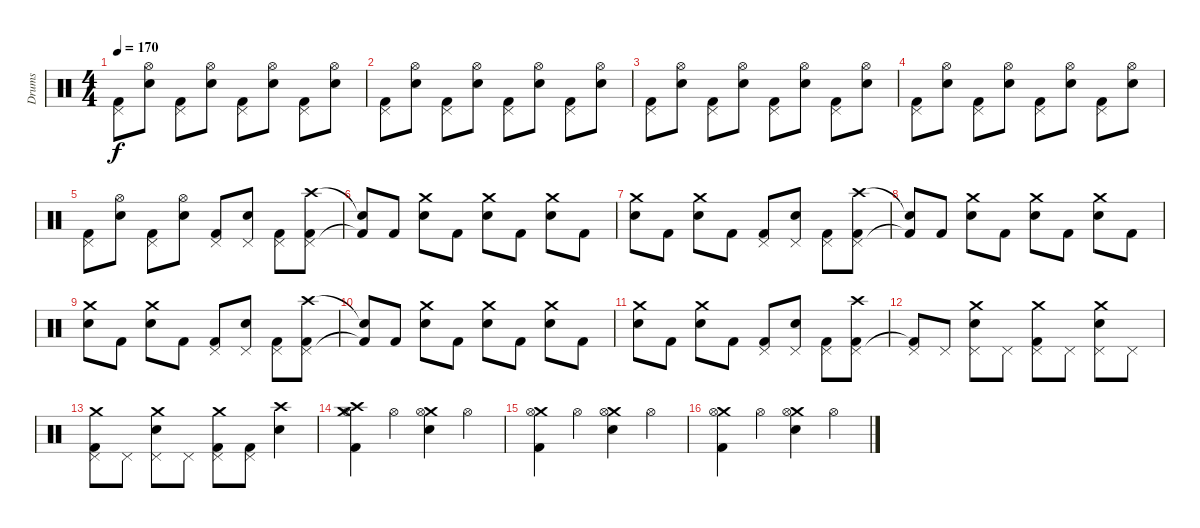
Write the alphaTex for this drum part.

\track ("Drums" "Drums") {instrument percussion}
\staff {score}
\articulation defaults
\ts (4 4)
\tempo 170
\clef neutral
\ks c
("Pedal Hi-Hat (hit)" "Kick (hit) 2").8{dy f} ("Hi-Hat (open)" "Electric Snare (hit)").8 ("Pedal Hi-Hat (hit)" "Kick (hit) 2").8 ("Hi-Hat (open)" "Electric Snare (hit)").8 ("Pedal Hi-Hat (hit)" "Kick (hit) 2").8 ("Hi-Hat (open)" "Electric Snare (hit)").8 ("Pedal Hi-Hat (hit)" "Kick (hit) 2").8 ("Hi-Hat (open)" "Electric Snare (hit)").8 |
("Pedal Hi-Hat (hit)" "Kick (hit) 2").8 ("Hi-Hat (open)" "Electric Snare (hit)").8 ("Pedal Hi-Hat (hit)" "Kick (hit) 2").8 ("Hi-Hat (open)" "Electric Snare (hit)").8 ("Pedal Hi-Hat (hit)" "Kick (hit) 2").8 ("Hi-Hat (open)" "Electric Snare (hit)").8 ("Pedal Hi-Hat (hit)" "Kick (hit) 2").8 ("Hi-Hat (open)" "Electric Snare (hit)").8 |
("Pedal Hi-Hat (hit)" "Kick (hit) 2").8 ("Hi-Hat (open)" "Electric Snare (hit)").8 ("Pedal Hi-Hat (hit)" "Kick (hit) 2").8 ("Hi-Hat (open)" "Electric Snare (hit)").8 ("Pedal Hi-Hat (hit)" "Kick (hit) 2").8 ("Hi-Hat (open)" "Electric Snare (hit)").8 ("Pedal Hi-Hat (hit)" "Kick (hit) 2").8 ("Hi-Hat (open)" "Electric Snare (hit)").8 |
("Pedal Hi-Hat (hit)" "Kick (hit) 2").8 ("Hi-Hat (open)" "Electric Snare (hit)").8 ("Pedal Hi-Hat (hit)" "Kick (hit) 2").8 ("Hi-Hat (open)" "Electric Snare (hit)").8 ("Pedal Hi-Hat (hit)" "Kick (hit) 2").8 ("Hi-Hat (open)" "Electric Snare (hit)").8 ("Pedal Hi-Hat (hit)" "Kick (hit) 2").8 ("Hi-Hat (open)" "Electric Snare (hit)").8 |
("Pedal Hi-Hat (hit)" "Kick (hit) 2").8 ("Hi-Hat (open)" "Electric Snare (hit)").8 ("Pedal Hi-Hat (hit)" "Kick (hit) 2").8 ("Hi-Hat (open)" "Electric Snare (hit)").8 ("Pedal Hi-Hat (hit)" "Kick (hit) 2").8 ("Pedal Hi-Hat (hit)" "Electric Snare (hit)").8 ("Pedal Hi-Hat (hit)" "Kick (hit) 2").8 ("Crash high (hit)" "Pedal Hi-Hat (hit)" "Kick (hit) 2").8 |
("Snare (hit)"{t} "Kick (hit) 2"{t}).8 "Kick (hit) 2".8 ("Crash medium (hit)" "Snare (hit) 2").8 "Kick (hit) 2".8 ("Crash medium (hit)" "Snare (hit) 2").8 "Kick (hit) 2".8 ("Crash medium (hit)" "Snare (hit) 2").8 "Kick (hit) 2".8 |
("Crash medium (hit)" "Snare (hit) 2").8 "Kick (hit) 2".8 ("Crash medium (hit)" "Snare (hit) 2").8 "Kick (hit) 2".8 ("Pedal Hi-Hat (hit)" "Kick (hit) 2").8 ("Pedal Hi-Hat (hit)" "Electric Snare (hit)").8 ("Pedal Hi-Hat (hit)" "Kick (hit) 2").8 ("Crash high (hit)" "Pedal Hi-Hat (hit)" "Kick (hit) 2").8 |
("Snare (hit)"{t} "Kick (hit) 2"{t}).8 "Kick (hit) 2".8 ("Crash medium (hit)" "Snare (hit) 2").8 "Kick (hit) 2".8 ("Crash medium (hit)" "Snare (hit) 2").8 "Kick (hit) 2".8 ("Crash medium (hit)" "Snare (hit) 2").8 "Kick (hit) 2".8 |
("Crash medium (hit)" "Snare (hit) 2").8 "Kick (hit) 2".8 ("Crash medium (hit)" "Snare (hit) 2").8 "Kick (hit) 2".8 ("Pedal Hi-Hat (hit)" "Kick (hit) 2").8 ("Pedal Hi-Hat (hit)" "Electric Snare (hit)").8 ("Pedal Hi-Hat (hit)" "Kick (hit) 2").8 ("Crash high (hit)" "Pedal Hi-Hat (hit)" "Kick (hit) 2").8 |
("Snare (hit)"{t} "Kick (hit) 2"{t}).8 "Kick (hit) 2".8 ("Crash medium (hit)" "Snare (hit) 2").8 "Kick (hit) 2".8 ("Crash medium (hit)" "Snare (hit) 2").8 "Kick (hit) 2".8 ("Crash medium (hit)" "Snare (hit) 2").8 "Kick (hit) 2".8 |
("Crash medium (hit)" "Snare (hit) 2").8 "Kick (hit) 2".8 ("Crash medium (hit)" "Snare (hit) 2").8 "Kick (hit) 2".8 ("Pedal Hi-Hat (hit)" "Kick (hit) 2").8 ("Pedal Hi-Hat (hit)" "Electric Snare (hit)").8 ("Pedal Hi-Hat (hit)" "Kick (hit) 2").8 ("Crash high (hit)" "Pedal Hi-Hat (hit)" "Kick (hit) 2").8 |
("Pedal Hi-Hat (hit)" "Kick (hit) 2"{t}).8 "Pedal Hi-Hat (hit)".8 ("Crash medium (hit)" "Pedal Hi-Hat (hit)" "Snare (hit) 2").8 "Pedal Hi-Hat (hit)".8 ("Crash medium (hit)" "Pedal Hi-Hat (hit)" "Kick (hit) 2").8 "Pedal Hi-Hat (hit)".8 ("Crash medium (hit)" "Pedal Hi-Hat (hit)" "Snare (hit) 2").8 "Pedal Hi-Hat (hit)".8 |
("Crash medium (hit)" "Pedal Hi-Hat (hit)" "Kick (hit) 2").8 "Pedal Hi-Hat (hit)".8 ("Crash medium (hit)" "Pedal Hi-Hat (hit)" "Snare (hit) 2").8 "Pedal Hi-Hat (hit)".8 ("Crash medium (hit)" "Pedal Hi-Hat (hit)" "Kick (hit) 2").8 ("Pedal Hi-Hat (hit)" "Kick (hit) 2").8 ("Crash high (hit)" "Snare (hit) 2").4 |
("Crash medium (hit)" "Hi-Hat (open)" "Kick (hit) 2" "Crash high (hit)").4 "Hi-Hat (open)".4 ("Crash medium (hit)" "Hi-Hat (open)" "Snare (hit) 2").4 "Hi-Hat (open)".4 |
("Crash medium (hit)" "Hi-Hat (open)" "Kick (hit) 2").4 "Hi-Hat (open)".4 ("Crash medium (hit)" "Hi-Hat (open)" "Snare (hit) 2").4 "Hi-Hat (open)".4 |
("Crash medium (hit)" "Hi-Hat (open)" "Kick (hit) 2").4 "Hi-Hat (open)".4 ("Crash medium (hit)" "Hi-Hat (open)" "Snare (hit) 2").4 "Hi-Hat (open)".4
